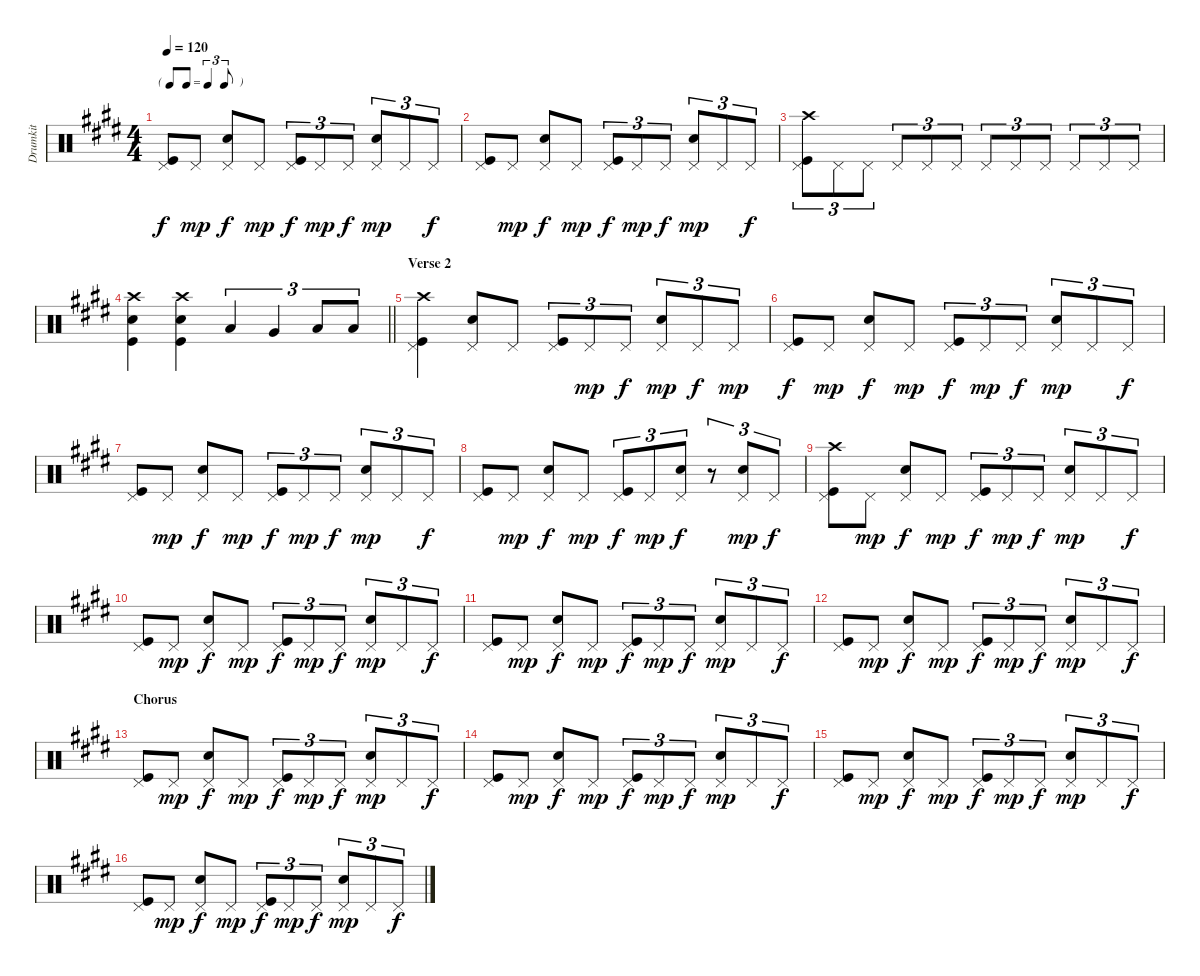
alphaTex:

\track ("Drumkit" "Drumkit") {instrument percussion}
\staff {score}
\articulation defaults
\ts (4 4)
\tf triplet8th
\tempo 120
\clef neutral
\ks e
("Pedal Hi-Hat (hit)" "Kick (hit)").8{dy f} "Pedal Hi-Hat (hit)".8{dy mp} ("Pedal Hi-Hat (hit)" "Snare (hit) 2").8{dy f} "Pedal Hi-Hat (hit)".8{dy mp} ("Pedal Hi-Hat (hit)" "Kick (hit)").8{tu (3 2) dy f} "Pedal Hi-Hat (hit)".8{tu (3 2) dy mp} "Pedal Hi-Hat (hit)".8{tu (3 2) dy f} ("Pedal Hi-Hat (hit)" "Snare (hit) 2").8{tu (3 2) dy mp} "Pedal Hi-Hat (hit)".8{tu (3 2)} "Pedal Hi-Hat (hit)".8{tu (3 2) dy f} |
("Pedal Hi-Hat (hit)" "Kick (hit)").8 "Pedal Hi-Hat (hit)".8{dy mp} ("Pedal Hi-Hat (hit)" "Snare (hit) 2").8{dy f} "Pedal Hi-Hat (hit)".8{dy mp} ("Pedal Hi-Hat (hit)" "Kick (hit)").8{tu (3 2) dy f} "Pedal Hi-Hat (hit)".8{tu (3 2) dy mp} "Pedal Hi-Hat (hit)".8{tu (3 2) dy f} ("Pedal Hi-Hat (hit)" "Snare (hit) 2").8{tu (3 2) dy mp} "Pedal Hi-Hat (hit)".8{tu (3 2)} "Pedal Hi-Hat (hit)".8{tu (3 2) dy f} |
("Crash high (hit)" "Pedal Hi-Hat (hit)" "Kick (hit)").8{tu (3 2)} "Pedal Hi-Hat (hit)".8{tu (3 2)} "Pedal Hi-Hat (hit)".8{tu (3 2)} "Pedal Hi-Hat (hit)".8{tu (3 2)} "Pedal Hi-Hat (hit)".8{tu (3 2)} "Pedal Hi-Hat (hit)".8{tu (3 2)} "Pedal Hi-Hat (hit)".8{tu (3 2)} "Pedal Hi-Hat (hit)".8{tu (3 2)} "Pedal Hi-Hat (hit)".8{tu (3 2)} "Pedal Hi-Hat (hit)".8{tu (3 2)} "Pedal Hi-Hat (hit)".8{tu (3 2)} "Pedal Hi-Hat (hit)".8{tu (3 2)} |
\barLineRight lightlight
("Crash high (hit)" "Snare (hit) 2" "Kick (hit)").4 ("Crash high (hit)" "Snare (hit) 2" "Kick (hit)").4 "Low Tom (hit)".4{tu (3 2)} "Very Low Tom (hit)".4{tu (3 2)} "Low Floor Tom (hit)".8{tu (3 2)} "Low Floor Tom (hit)".8{tu (3 2)} |
\section ("" "Verse 2")
("Crash high (hit)" "Pedal Hi-Hat (hit)" "Kick (hit)").4 ("Pedal Hi-Hat (hit)" "Snare (hit) 2").8 "Pedal Hi-Hat (hit)".8 ("Pedal Hi-Hat (hit)" "Kick (hit)").8{tu (3 2)} "Pedal Hi-Hat (hit)".8{tu (3 2) dy mp} "Pedal Hi-Hat (hit)".8{tu (3 2) dy f} ("Pedal Hi-Hat (hit)" "Snare (hit) 2").8{tu (3 2) dy mp} "Pedal Hi-Hat (hit)".8{tu (3 2) dy f} "Pedal Hi-Hat (hit)".8{tu (3 2) dy mp} |
("Pedal Hi-Hat (hit)" "Kick (hit)").8{dy f} "Pedal Hi-Hat (hit)".8{dy mp} ("Pedal Hi-Hat (hit)" "Snare (hit) 2").8{dy f} "Pedal Hi-Hat (hit)".8{dy mp} ("Pedal Hi-Hat (hit)" "Kick (hit)").8{tu (3 2) dy f} "Pedal Hi-Hat (hit)".8{tu (3 2) dy mp} "Pedal Hi-Hat (hit)".8{tu (3 2) dy f} ("Pedal Hi-Hat (hit)" "Snare (hit) 2").8{tu (3 2) dy mp} "Pedal Hi-Hat (hit)".8{tu (3 2)} "Pedal Hi-Hat (hit)".8{tu (3 2) dy f} |
("Pedal Hi-Hat (hit)" "Kick (hit)").8 "Pedal Hi-Hat (hit)".8{dy mp} ("Pedal Hi-Hat (hit)" "Snare (hit) 2").8{dy f} "Pedal Hi-Hat (hit)".8{dy mp} ("Pedal Hi-Hat (hit)" "Kick (hit)").8{tu (3 2) dy f} "Pedal Hi-Hat (hit)".8{tu (3 2) dy mp} "Pedal Hi-Hat (hit)".8{tu (3 2) dy f} ("Pedal Hi-Hat (hit)" "Snare (hit) 2").8{tu (3 2) dy mp} "Pedal Hi-Hat (hit)".8{tu (3 2)} "Pedal Hi-Hat (hit)".8{tu (3 2) dy f} |
("Pedal Hi-Hat (hit)" "Kick (hit)").8 "Pedal Hi-Hat (hit)".8{dy mp} ("Pedal Hi-Hat (hit)" "Snare (hit) 2").8{dy f} "Pedal Hi-Hat (hit)".8{dy mp} ("Pedal Hi-Hat (hit)" "Kick (hit)").8{tu (3 2) dy f} "Pedal Hi-Hat (hit)".8{tu (3 2) dy mp} ("Pedal Hi-Hat (hit)" "Snare (hit) 2").8{tu (3 2) dy f} r.8{tu (3 2)} ("Pedal Hi-Hat (hit)" "Snare (hit) 2").8{tu (3 2) dy mp} "Pedal Hi-Hat (hit)".8{tu (3 2) dy f} |
("Crash high (hit)" "Pedal Hi-Hat (hit)" "Kick (hit)").8 "Pedal Hi-Hat (hit)".8{dy mp} ("Pedal Hi-Hat (hit)" "Snare (hit) 2").8{dy f} "Pedal Hi-Hat (hit)".8{dy mp} ("Pedal Hi-Hat (hit)" "Kick (hit)").8{tu (3 2) dy f} "Pedal Hi-Hat (hit)".8{tu (3 2) dy mp} "Pedal Hi-Hat (hit)".8{tu (3 2) dy f} ("Pedal Hi-Hat (hit)" "Snare (hit) 2").8{tu (3 2) dy mp} "Pedal Hi-Hat (hit)".8{tu (3 2)} "Pedal Hi-Hat (hit)".8{tu (3 2) dy f} |
("Pedal Hi-Hat (hit)" "Kick (hit)").8 "Pedal Hi-Hat (hit)".8{dy mp} ("Pedal Hi-Hat (hit)" "Snare (hit) 2").8{dy f} "Pedal Hi-Hat (hit)".8{dy mp} ("Pedal Hi-Hat (hit)" "Kick (hit)").8{tu (3 2) dy f} "Pedal Hi-Hat (hit)".8{tu (3 2) dy mp} "Pedal Hi-Hat (hit)".8{tu (3 2) dy f} ("Pedal Hi-Hat (hit)" "Snare (hit) 2").8{tu (3 2) dy mp} "Pedal Hi-Hat (hit)".8{tu (3 2)} "Pedal Hi-Hat (hit)".8{tu (3 2) dy f} |
("Pedal Hi-Hat (hit)" "Kick (hit)").8 "Pedal Hi-Hat (hit)".8{dy mp} ("Pedal Hi-Hat (hit)" "Snare (hit) 2").8{dy f} "Pedal Hi-Hat (hit)".8{dy mp} ("Pedal Hi-Hat (hit)" "Kick (hit)").8{tu (3 2) dy f} "Pedal Hi-Hat (hit)".8{tu (3 2) dy mp} "Pedal Hi-Hat (hit)".8{tu (3 2) dy f} ("Pedal Hi-Hat (hit)" "Snare (hit) 2").8{tu (3 2) dy mp} "Pedal Hi-Hat (hit)".8{tu (3 2)} "Pedal Hi-Hat (hit)".8{tu (3 2) dy f} |
("Pedal Hi-Hat (hit)" "Kick (hit)").8 "Pedal Hi-Hat (hit)".8{dy mp} ("Pedal Hi-Hat (hit)" "Snare (hit) 2").8{dy f} "Pedal Hi-Hat (hit)".8{dy mp} ("Pedal Hi-Hat (hit)" "Kick (hit)").8{tu (3 2) dy f} "Pedal Hi-Hat (hit)".8{tu (3 2) dy mp} "Pedal Hi-Hat (hit)".8{tu (3 2) dy f} ("Pedal Hi-Hat (hit)" "Snare (hit) 2").8{tu (3 2) dy mp} "Pedal Hi-Hat (hit)".8{tu (3 2)} "Pedal Hi-Hat (hit)".8{tu (3 2) dy f} |
\section ("" "Chorus")
("Pedal Hi-Hat (hit)" "Kick (hit)").8 "Pedal Hi-Hat (hit)".8{dy mp} ("Pedal Hi-Hat (hit)" "Snare (hit) 2").8{dy f} "Pedal Hi-Hat (hit)".8{dy mp} ("Pedal Hi-Hat (hit)" "Kick (hit)").8{tu (3 2) dy f} "Pedal Hi-Hat (hit)".8{tu (3 2) dy mp} "Pedal Hi-Hat (hit)".8{tu (3 2) dy f} ("Pedal Hi-Hat (hit)" "Snare (hit) 2").8{tu (3 2) dy mp} "Pedal Hi-Hat (hit)".8{tu (3 2)} "Pedal Hi-Hat (hit)".8{tu (3 2) dy f} |
("Pedal Hi-Hat (hit)" "Kick (hit)").8 "Pedal Hi-Hat (hit)".8{dy mp} ("Pedal Hi-Hat (hit)" "Snare (hit) 2").8{dy f} "Pedal Hi-Hat (hit)".8{dy mp} ("Pedal Hi-Hat (hit)" "Kick (hit)").8{tu (3 2) dy f} "Pedal Hi-Hat (hit)".8{tu (3 2) dy mp} "Pedal Hi-Hat (hit)".8{tu (3 2) dy f} ("Pedal Hi-Hat (hit)" "Snare (hit) 2").8{tu (3 2) dy mp} "Pedal Hi-Hat (hit)".8{tu (3 2)} "Pedal Hi-Hat (hit)".8{tu (3 2) dy f} |
("Pedal Hi-Hat (hit)" "Kick (hit)").8 "Pedal Hi-Hat (hit)".8{dy mp} ("Pedal Hi-Hat (hit)" "Snare (hit) 2").8{dy f} "Pedal Hi-Hat (hit)".8{dy mp} ("Pedal Hi-Hat (hit)" "Kick (hit)").8{tu (3 2) dy f} "Pedal Hi-Hat (hit)".8{tu (3 2) dy mp} "Pedal Hi-Hat (hit)".8{tu (3 2) dy f} ("Pedal Hi-Hat (hit)" "Snare (hit) 2").8{tu (3 2) dy mp} "Pedal Hi-Hat (hit)".8{tu (3 2)} "Pedal Hi-Hat (hit)".8{tu (3 2) dy f} |
("Pedal Hi-Hat (hit)" "Kick (hit)").8 "Pedal Hi-Hat (hit)".8{dy mp} ("Pedal Hi-Hat (hit)" "Snare (hit) 2").8{dy f} "Pedal Hi-Hat (hit)".8{dy mp} ("Pedal Hi-Hat (hit)" "Kick (hit)").8{tu (3 2) dy f} "Pedal Hi-Hat (hit)".8{tu (3 2) dy mp} "Pedal Hi-Hat (hit)".8{tu (3 2) dy f} ("Pedal Hi-Hat (hit)" "Snare (hit) 2").8{tu (3 2) dy mp} "Pedal Hi-Hat (hit)".8{tu (3 2)} "Pedal Hi-Hat (hit)".8{tu (3 2) dy f}
